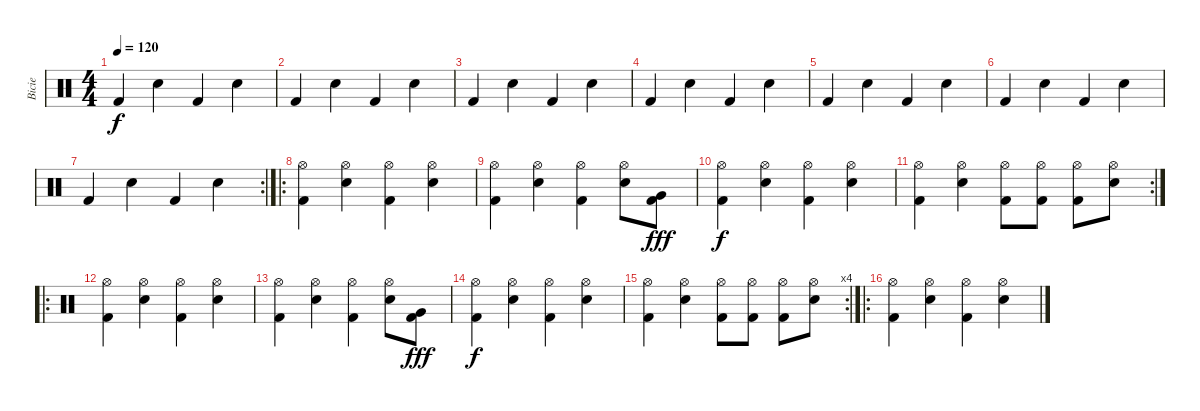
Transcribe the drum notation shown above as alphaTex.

\track ("Bicie" "Bicie") {instrument percussion}
\staff {score}
\articulation defaults
\ts (4 4)
\tempo 120
\clef neutral
\ks c "Kick (hit) 2".4{dy f} "Snare (hit) 2".4 "Kick (hit) 2".4 "Snare (hit) 2".4
|
"Kick (hit) 2".4 "Snare (hit) 2".4 "Kick (hit) 2".4 "Snare (hit) 2".4 |
"Kick (hit) 2".4 "Snare (hit) 2".4 "Kick (hit) 2".4 "Snare (hit) 2".4 |
"Kick (hit) 2".4 "Snare (hit) 2".4 "Kick (hit) 2".4 "Snare (hit) 2".4 |
"Kick (hit) 2".4 "Snare (hit) 2".4 "Kick (hit) 2".4 "Snare (hit) 2".4 |
"Kick (hit) 2".4 "Snare (hit) 2".4 "Kick (hit) 2".4 "Snare (hit) 2".4 |
\rc 2 "Kick (hit) 2".4 "Snare (hit) 2".4 "Kick (hit) 2".4 "Snare (hit) 2".4
|
\ro
("Hi-Hat (open)" "Kick (hit) 2").4 ("Hi-Hat (open)" "Snare (hit) 2").4 ("Hi-Hat (open)" "Kick (hit) 2").4 ("Hi-Hat (open)" "Snare (hit) 2").4 |
("Hi-Hat (open)" "Kick (hit) 2").4 ("Hi-Hat (open)" "Snare (hit) 2").4 ("Hi-Hat (open)" "Kick (hit) 2").4 ("Hi-Hat (open)" "Snare (hit) 2").8 ("Kick (hit) 2" "Very Low Tom (hit)").8{dy fff} |
("Hi-Hat (open)" "Kick (hit) 2").4{dy f} ("Hi-Hat (open)" "Snare (hit) 2").4 ("Hi-Hat (open)" "Kick (hit) 2").4 ("Hi-Hat (open)" "Snare (hit) 2").4 |
\rc 2
("Hi-Hat (open)" "Kick (hit) 2").4 ("Hi-Hat (open)" "Snare (hit) 2").4 ("Hi-Hat (open)" "Kick (hit) 2").8 ("Hi-Hat (open)" "Kick (hit) 2").8 ("Hi-Hat (open)" "Kick (hit) 2").8 ("Hi-Hat (open)" "Snare (hit) 2").8 |
\ro
("Hi-Hat (open)" "Kick (hit) 2").4 ("Hi-Hat (open)" "Snare (hit) 2").4 ("Hi-Hat (open)" "Kick (hit) 2").4 ("Hi-Hat (open)" "Snare (hit) 2").4 |
("Hi-Hat (open)" "Kick (hit) 2").4 ("Hi-Hat (open)" "Snare (hit) 2").4 ("Hi-Hat (open)" "Kick (hit) 2").4 ("Hi-Hat (open)" "Snare (hit) 2").8 ("Kick (hit) 2" "Very Low Tom (hit)").8{dy fff} |
("Hi-Hat (open)" "Kick (hit) 2").4{dy f} ("Hi-Hat (open)" "Snare (hit) 2").4 ("Hi-Hat (open)" "Kick (hit) 2").4 ("Hi-Hat (open)" "Snare (hit) 2").4 |
\rc 4
("Hi-Hat (open)" "Kick (hit) 2").4 ("Hi-Hat (open)" "Snare (hit) 2").4 ("Hi-Hat (open)" "Kick (hit) 2").8 ("Hi-Hat (open)" "Kick (hit) 2").8 ("Hi-Hat (open)" "Kick (hit) 2").8 ("Hi-Hat (open)" "Snare (hit) 2").8 |
\ro
("Hi-Hat (open)" "Kick (hit) 2").4 ("Hi-Hat (open)" "Snare (hit) 2").4 ("Hi-Hat (open)" "Kick (hit) 2").4 ("Hi-Hat (open)" "Snare (hit) 2").4
